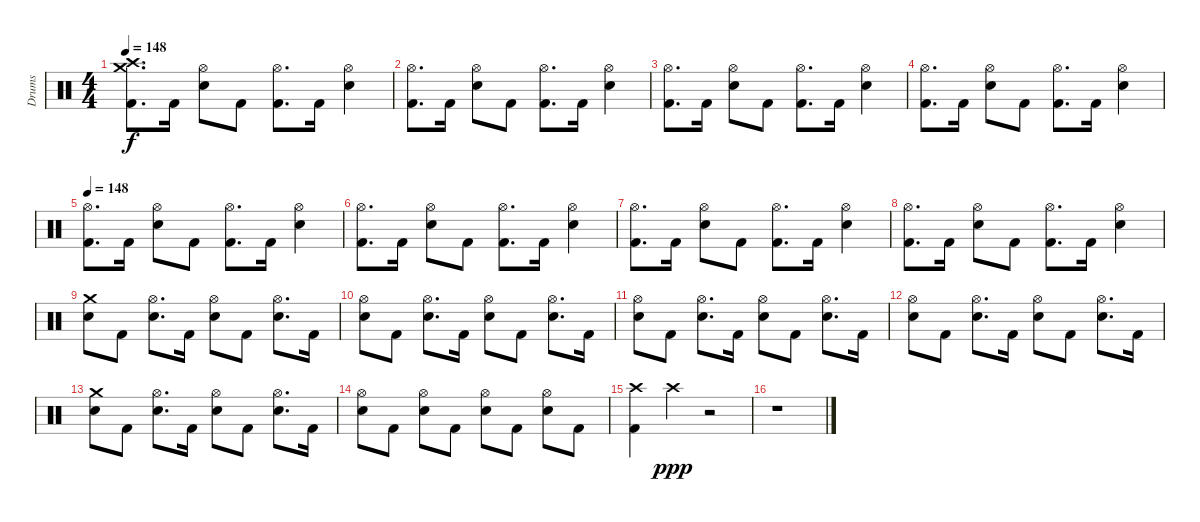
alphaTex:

\track ("Drums" "Drums") {instrument percussion}
\staff {score}
\articulation defaults
\ts (4 4)
\tempo 148
\clef neutral
\ks c
("Crash high (hit)" "Crash medium (hit)" "Kick (hit) 2").8{d dy f} "Kick (hit) 2".16 ("Hi-Hat (open)" "Snare (hit) 2").8 "Kick (hit) 2".8 ("Hi-Hat (open)" "Kick (hit) 2").8{d} "Kick (hit) 2".16 ("Hi-Hat (open)" "Snare (hit) 2").4 |
("Hi-Hat (open)" "Kick (hit) 2").8{d} "Kick (hit) 2".16 ("Hi-Hat (open)" "Snare (hit) 2").8 "Kick (hit) 2".8 ("Hi-Hat (open)" "Kick (hit) 2").8{d} "Kick (hit) 2".16 ("Hi-Hat (open)" "Snare (hit) 2").4 |
("Hi-Hat (open)" "Kick (hit) 2").8{d} "Kick (hit) 2".16 ("Hi-Hat (open)" "Snare (hit) 2").8 "Kick (hit) 2".8 ("Hi-Hat (open)" "Kick (hit) 2").8{d} "Kick (hit) 2".16 ("Hi-Hat (open)" "Snare (hit) 2").4 |
("Hi-Hat (open)" "Kick (hit) 2").8{d} "Kick (hit) 2".16 ("Hi-Hat (open)" "Snare (hit) 2").8 "Kick (hit) 2".8 ("Hi-Hat (open)" "Kick (hit) 2").8{d} "Kick (hit) 2".16 ("Hi-Hat (open)" "Snare (hit) 2").4 |
\tempo 148
("Hi-Hat (open)" "Kick (hit) 2").8{d} "Kick (hit) 2".16 ("Hi-Hat (open)" "Snare (hit) 2").8 "Kick (hit) 2".8 ("Hi-Hat (open)" "Kick (hit) 2").8{d} "Kick (hit) 2".16 ("Hi-Hat (open)" "Snare (hit) 2").4 |
("Hi-Hat (open)" "Kick (hit) 2").8{d} "Kick (hit) 2".16 ("Hi-Hat (open)" "Snare (hit) 2").8 "Kick (hit) 2".8 ("Hi-Hat (open)" "Kick (hit) 2").8{d} "Kick (hit) 2".16 ("Hi-Hat (open)" "Snare (hit) 2").4 |
("Hi-Hat (open)" "Kick (hit) 2").8{d} "Kick (hit) 2".16 ("Hi-Hat (open)" "Snare (hit) 2").8 "Kick (hit) 2".8 ("Hi-Hat (open)" "Kick (hit) 2").8{d} "Kick (hit) 2".16 ("Hi-Hat (open)" "Snare (hit) 2").4 |
("Hi-Hat (open)" "Kick (hit) 2").8{d} "Kick (hit) 2".16 ("Hi-Hat (open)" "Snare (hit) 2").8 "Kick (hit) 2".8 ("Hi-Hat (open)" "Kick (hit) 2").8{d} "Kick (hit) 2".16 ("Hi-Hat (open)" "Snare (hit) 2").4 |
("Crash medium (hit)" "Snare (hit) 2").8 "Kick (hit) 2".8 ("Hi-Hat (open)" "Snare (hit) 2").8{d} "Kick (hit) 2".16 ("Hi-Hat (open)" "Snare (hit) 2").8 "Kick (hit) 2".8 ("Hi-Hat (open)" "Snare (hit) 2").8{d} "Kick (hit) 2".16 |
("Hi-Hat (open)" "Snare (hit) 2").8 "Kick (hit) 2".8 ("Hi-Hat (open)" "Snare (hit) 2").8{d} "Kick (hit) 2".16 ("Hi-Hat (open)" "Snare (hit) 2").8 "Kick (hit) 2".8 ("Hi-Hat (open)" "Snare (hit) 2").8{d} "Kick (hit) 2".16 |
("Hi-Hat (open)" "Snare (hit) 2").8 "Kick (hit) 2".8 ("Hi-Hat (open)" "Snare (hit) 2").8{d} "Kick (hit) 2".16 ("Hi-Hat (open)" "Snare (hit) 2").8 "Kick (hit) 2".8 ("Hi-Hat (open)" "Snare (hit) 2").8{d} "Kick (hit) 2".16 |
("Hi-Hat (open)" "Snare (hit) 2").8 "Kick (hit) 2".8 ("Hi-Hat (open)" "Snare (hit) 2").8{d} "Kick (hit) 2".16 ("Hi-Hat (open)" "Snare (hit) 2").8 "Kick (hit) 2".8 ("Hi-Hat (open)" "Snare (hit) 2").8{d} "Kick (hit) 2".16 |
("Crash medium (hit)" "Snare (hit) 2").8 "Kick (hit) 2".8 ("Hi-Hat (open)" "Snare (hit) 2").8{d} "Kick (hit) 2".16 ("Hi-Hat (open)" "Snare (hit) 2").8 "Kick (hit) 2".8 ("Hi-Hat (open)" "Snare (hit) 2").8{d} "Kick (hit) 2".16 |
("Hi-Hat (open)" "Snare (hit) 2").8 "Kick (hit) 2".8 ("Hi-Hat (open)" "Snare (hit) 2").8 "Kick (hit) 2".8 ("Hi-Hat (open)" "Snare (hit) 2").8 "Kick (hit) 2".8 ("Hi-Hat (open)" "Snare (hit) 2").8 "Kick (hit) 2".8 |
("Crash high (hit)" "Kick (hit) 2").4 "Crash high (hit)".4{dy ppp} r.2 |
r.1
